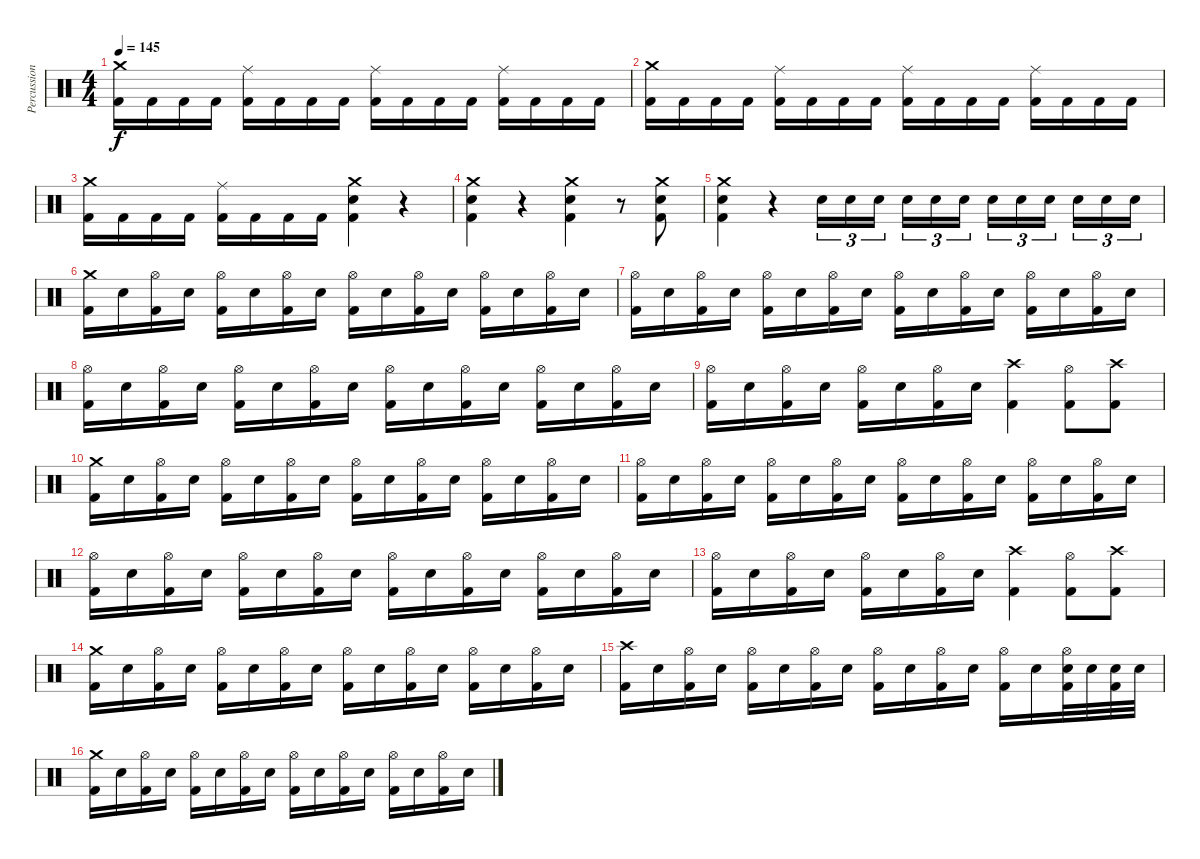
\track ("Percussions" "Percussion") {instrument percussion}
\staff {score}
\articulation defaults
\ts (4 4)
\tempo 145
\clef neutral
\ks c
("Crash medium (hit)" "Kick (hit) 2").16{dy f} "Kick (hit) 2".16 "Kick (hit) 2".16 "Kick (hit) 2".16 ("Ride (middle)" "Kick (hit) 2").16 "Kick (hit) 2".16 "Kick (hit) 2".16 "Kick (hit) 2".16 ("Ride (middle)" "Kick (hit) 2").16 "Kick (hit) 2".16 "Kick (hit) 2".16 "Kick (hit) 2".16 ("Ride (middle)" "Kick (hit) 2").16 "Kick (hit) 2".16 "Kick (hit) 2".16 "Kick (hit) 2".16 |
("Crash medium (hit)" "Kick (hit) 2").16 "Kick (hit) 2".16 "Kick (hit) 2".16 "Kick (hit) 2".16 ("Ride (middle)" "Kick (hit) 2").16 "Kick (hit) 2".16 "Kick (hit) 2".16 "Kick (hit) 2".16 ("Ride (middle)" "Kick (hit) 2").16 "Kick (hit) 2".16 "Kick (hit) 2".16 "Kick (hit) 2".16 ("Ride (middle)" "Kick (hit) 2").16 "Kick (hit) 2".16 "Kick (hit) 2".16 "Kick (hit) 2".16 |
("Crash medium (hit)" "Kick (hit) 2").16 "Kick (hit) 2".16 "Kick (hit) 2".16 "Kick (hit) 2".16 ("Ride (middle)" "Kick (hit) 2").16 "Kick (hit) 2".16 "Kick (hit) 2".16 "Kick (hit) 2".16 ("Crash medium (hit)" "Electric Snare (hit)" "Kick (hit) 2").4 r.4 |
("Crash medium (hit)" "Electric Snare (hit)" "Kick (hit) 2").4 r.4 ("Crash medium (hit)" "Electric Snare (hit)" "Kick (hit) 2").4 r.8 ("Crash medium (hit)" "Electric Snare (hit)" "Kick (hit) 2").8 |
("Crash medium (hit)" "Electric Snare (hit)" "Kick (hit) 2").4 r.4 "Electric Snare (hit)".16{tu (3 2)} "Electric Snare (hit)".16{tu (3 2)} "Electric Snare (hit)".16{tu (3 2) beam splitsecondary} "Electric Snare (hit)".16{tu (3 2)} "Electric Snare (hit)".16{tu (3 2)} "Electric Snare (hit)".16{tu (3 2)} "Electric Snare (hit)".16{tu (3 2)} "Electric Snare (hit)".16{tu (3 2)} "Electric Snare (hit)".16{tu (3 2) beam splitsecondary} "Electric Snare (hit)".16{tu (3 2)} "Electric Snare (hit)".16{tu (3 2)} "Electric Snare (hit)".16{tu (3 2)} |
("Crash medium (hit)" "Kick (hit) 2").16 "Electric Snare (hit)".16 ("Hi-Hat (open)" "Kick (hit) 2").16 "Electric Snare (hit)".16 ("Hi-Hat (open)" "Kick (hit) 2").16 "Electric Snare (hit)".16 ("Hi-Hat (open)" "Kick (hit) 2").16 "Electric Snare (hit)".16 ("Hi-Hat (open)" "Kick (hit) 2").16 "Electric Snare (hit)".16 ("Hi-Hat (open)" "Kick (hit) 2").16 "Electric Snare (hit)".16 ("Hi-Hat (open)" "Kick (hit) 2").16 "Electric Snare (hit)".16 ("Hi-Hat (open)" "Kick (hit) 2").16 "Electric Snare (hit)".16 |
("Hi-Hat (open)" "Kick (hit) 2").16 "Electric Snare (hit)".16 ("Hi-Hat (open)" "Kick (hit) 2").16 "Electric Snare (hit)".16 ("Hi-Hat (open)" "Kick (hit) 2").16 "Electric Snare (hit)".16 ("Hi-Hat (open)" "Kick (hit) 2").16 "Electric Snare (hit)".16 ("Hi-Hat (open)" "Kick (hit) 2").16 "Electric Snare (hit)".16 ("Hi-Hat (open)" "Kick (hit) 2").16 "Electric Snare (hit)".16 ("Hi-Hat (open)" "Kick (hit) 2").16 "Electric Snare (hit)".16 ("Hi-Hat (open)" "Kick (hit) 2").16 "Electric Snare (hit)".16 |
("Hi-Hat (open)" "Kick (hit) 2").16 "Electric Snare (hit)".16 ("Hi-Hat (open)" "Kick (hit) 2").16 "Electric Snare (hit)".16 ("Hi-Hat (open)" "Kick (hit) 2").16 "Electric Snare (hit)".16 ("Hi-Hat (open)" "Kick (hit) 2").16 "Electric Snare (hit)".16 ("Hi-Hat (open)" "Kick (hit) 2").16 "Electric Snare (hit)".16 ("Hi-Hat (open)" "Kick (hit) 2").16 "Electric Snare (hit)".16 ("Hi-Hat (open)" "Kick (hit) 2").16 "Electric Snare (hit)".16 ("Hi-Hat (open)" "Kick (hit) 2").16 "Electric Snare (hit)".16 |
("Hi-Hat (open)" "Kick (hit) 2").16 "Electric Snare (hit)".16 ("Hi-Hat (open)" "Kick (hit) 2").16 "Electric Snare (hit)".16 ("Hi-Hat (open)" "Kick (hit) 2").16 "Electric Snare (hit)".16 ("Hi-Hat (open)" "Kick (hit) 2").16 "Electric Snare (hit)".16 ("Crash high (hit)" "Kick (hit) 2").4 ("Hi-Hat (open)" "Kick (hit) 2").8 ("Crash high (hit)" "Kick (hit) 2").8 |
("Crash medium (hit)" "Kick (hit) 2").16 "Electric Snare (hit)".16 ("Hi-Hat (open)" "Kick (hit) 2").16 "Electric Snare (hit)".16 ("Hi-Hat (open)" "Kick (hit) 2").16 "Electric Snare (hit)".16 ("Hi-Hat (open)" "Kick (hit) 2").16 "Electric Snare (hit)".16 ("Hi-Hat (open)" "Kick (hit) 2").16 "Electric Snare (hit)".16 ("Hi-Hat (open)" "Kick (hit) 2").16 "Electric Snare (hit)".16 ("Hi-Hat (open)" "Kick (hit) 2").16 "Electric Snare (hit)".16 ("Hi-Hat (open)" "Kick (hit) 2").16 "Electric Snare (hit)".16 |
("Hi-Hat (open)" "Kick (hit) 2").16 "Electric Snare (hit)".16 ("Hi-Hat (open)" "Kick (hit) 2").16 "Electric Snare (hit)".16 ("Hi-Hat (open)" "Kick (hit) 2").16 "Electric Snare (hit)".16 ("Hi-Hat (open)" "Kick (hit) 2").16 "Electric Snare (hit)".16 ("Hi-Hat (open)" "Kick (hit) 2").16 "Electric Snare (hit)".16 ("Hi-Hat (open)" "Kick (hit) 2").16 "Electric Snare (hit)".16 ("Hi-Hat (open)" "Kick (hit) 2").16 "Electric Snare (hit)".16 ("Hi-Hat (open)" "Kick (hit) 2").16 "Electric Snare (hit)".16 |
("Hi-Hat (open)" "Kick (hit) 2").16 "Electric Snare (hit)".16 ("Hi-Hat (open)" "Kick (hit) 2").16 "Electric Snare (hit)".16 ("Hi-Hat (open)" "Kick (hit) 2").16 "Electric Snare (hit)".16 ("Hi-Hat (open)" "Kick (hit) 2").16 "Electric Snare (hit)".16 ("Hi-Hat (open)" "Kick (hit) 2").16 "Electric Snare (hit)".16 ("Hi-Hat (open)" "Kick (hit) 2").16 "Electric Snare (hit)".16 ("Hi-Hat (open)" "Kick (hit) 2").16 "Electric Snare (hit)".16 ("Hi-Hat (open)" "Kick (hit) 2").16 "Electric Snare (hit)".16 |
("Hi-Hat (open)" "Kick (hit) 2").16 "Electric Snare (hit)".16 ("Hi-Hat (open)" "Kick (hit) 2").16 "Electric Snare (hit)".16 ("Hi-Hat (open)" "Kick (hit) 2").16 "Electric Snare (hit)".16 ("Hi-Hat (open)" "Kick (hit) 2").16 "Electric Snare (hit)".16 ("Crash high (hit)" "Kick (hit) 2").4 ("Hi-Hat (open)" "Kick (hit) 2").8 ("Crash high (hit)" "Kick (hit) 2").8 |
("Crash medium (hit)" "Kick (hit) 2").16 "Electric Snare (hit)".16 ("Hi-Hat (open)" "Kick (hit) 2").16 "Electric Snare (hit)".16 ("Hi-Hat (open)" "Kick (hit) 2").16 "Electric Snare (hit)".16 ("Hi-Hat (open)" "Kick (hit) 2").16 "Electric Snare (hit)".16 ("Hi-Hat (open)" "Kick (hit) 2").16 "Electric Snare (hit)".16 ("Hi-Hat (open)" "Kick (hit) 2").16 "Electric Snare (hit)".16 ("Hi-Hat (open)" "Kick (hit) 2").16 "Electric Snare (hit)".16 ("Hi-Hat (open)" "Kick (hit) 2").16 "Electric Snare (hit)".16 |
("Crash high (hit)" "Kick (hit) 2").16 "Electric Snare (hit)".16 ("Hi-Hat (open)" "Kick (hit) 2").16 "Electric Snare (hit)".16 ("Hi-Hat (open)" "Kick (hit) 2").16 "Electric Snare (hit)".16 ("Hi-Hat (open)" "Kick (hit) 2").16 "Electric Snare (hit)".16 ("Hi-Hat (open)" "Kick (hit) 2").16 "Electric Snare (hit)".16 ("Hi-Hat (open)" "Kick (hit) 2").16 "Electric Snare (hit)".16 ("Hi-Hat (open)" "Kick (hit) 2").16 "Electric Snare (hit)".16 ("Hi-Hat (open)" "Electric Snare (hit)" "Kick (hit) 2").32 "Electric Snare (hit)".32 ("Electric Snare (hit)" "Kick (hit) 2").32 "Electric Snare (hit)".32 |
("Crash medium (hit)" "Kick (hit) 2").16 "Electric Snare (hit)".16 ("Hi-Hat (open)" "Kick (hit) 2").16 "Electric Snare (hit)".16 ("Hi-Hat (open)" "Kick (hit) 2").16 "Electric Snare (hit)".16 ("Hi-Hat (open)" "Kick (hit) 2").16 "Electric Snare (hit)".16 ("Hi-Hat (open)" "Kick (hit) 2").16 "Electric Snare (hit)".16 ("Hi-Hat (open)" "Kick (hit) 2").16 "Electric Snare (hit)".16 ("Hi-Hat (open)" "Kick (hit) 2").16 "Electric Snare (hit)".16 ("Hi-Hat (open)" "Kick (hit) 2").16 "Electric Snare (hit)".16
